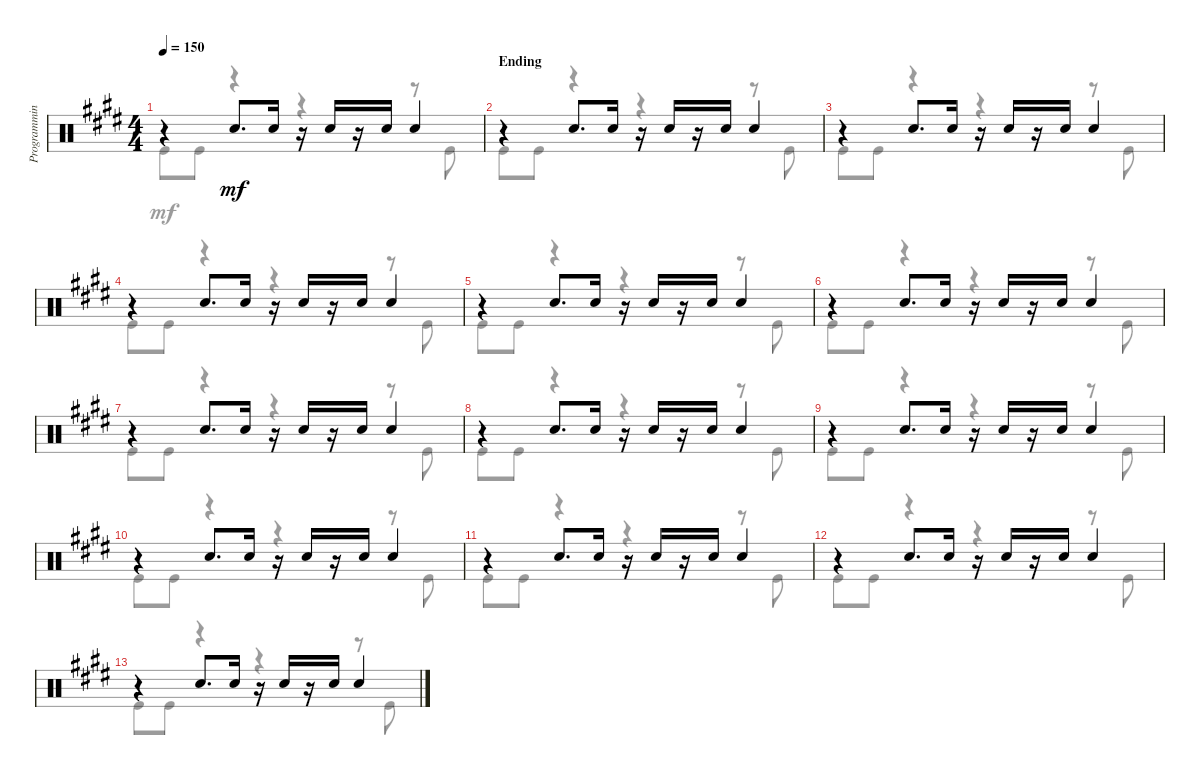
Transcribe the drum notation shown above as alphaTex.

\track ("Programming" "Programmin") {instrument percussion}
\staff {score}
\articulation defaults
\voice
\ts (4 4)
\tempo 150
\clef neutral
\ks e
r.4{dy mf} "Snare (hit) 2".8{d} "Snare (hit) 2".16 r.16 "Snare (hit) 2".16 r.16 "Snare (hit) 2".16 "Snare (hit) 2".4 |
\section ("" "Ending")
r.4 "Snare (hit) 2".8{d} "Snare (hit) 2".16 r.16 "Snare (hit) 2".16 r.16 "Snare (hit) 2".16 "Snare (hit) 2".4 |
r.4 "Snare (hit) 2".8{d} "Snare (hit) 2".16 r.16 "Snare (hit) 2".16 r.16 "Snare (hit) 2".16 "Snare (hit) 2".4 |
r.4 "Snare (hit) 2".8{d} "Snare (hit) 2".16 r.16 "Snare (hit) 2".16 r.16 "Snare (hit) 2".16 "Snare (hit) 2".4 |
r.4 "Snare (hit) 2".8{d} "Snare (hit) 2".16 r.16 "Snare (hit) 2".16 r.16 "Snare (hit) 2".16 "Snare (hit) 2".4 |
r.4 "Snare (hit) 2".8{d} "Snare (hit) 2".16 r.16 "Snare (hit) 2".16 r.16 "Snare (hit) 2".16 "Snare (hit) 2".4 |
r.4 "Snare (hit) 2".8{d} "Snare (hit) 2".16 r.16 "Snare (hit) 2".16 r.16 "Snare (hit) 2".16 "Snare (hit) 2".4 |
r.4 "Snare (hit) 2".8{d} "Snare (hit) 2".16 r.16 "Snare (hit) 2".16 r.16 "Snare (hit) 2".16 "Snare (hit) 2".4 |
r.4 "Snare (hit) 2".8{d} "Snare (hit) 2".16 r.16 "Snare (hit) 2".16 r.16 "Snare (hit) 2".16 "Snare (hit) 2".4 |
r.4 "Snare (hit) 2".8{d} "Snare (hit) 2".16 r.16 "Snare (hit) 2".16 r.16 "Snare (hit) 2".16 "Snare (hit) 2".4 |
r.4 "Snare (hit) 2".8{d} "Snare (hit) 2".16 r.16 "Snare (hit) 2".16 r.16 "Snare (hit) 2".16 "Snare (hit) 2".4 |
r.4 "Snare (hit) 2".8{d} "Snare (hit) 2".16 r.16 "Snare (hit) 2".16 r.16 "Snare (hit) 2".16 "Snare (hit) 2".4 |
r.4 "Snare (hit) 2".8{d} "Snare (hit) 2".16 r.16 "Snare (hit) 2".16 r.16 "Snare (hit) 2".16 "Snare (hit) 2".4 |
\voice
\clef neutral
\ottava regular
\simile none
\ks e "Kick (hit)".8{dy mf} "Kick (hit)".8
r.4 r.4 r.8 "Kick (hit)".8 |
"Kick (hit)".8 "Kick (hit)".8 r.4 r.4 r.8 "Kick (hit)".8 |
"Kick (hit)".8 "Kick (hit)".8 r.4 r.4 r.8 "Kick (hit)".8 |
"Kick (hit)".8 "Kick (hit)".8 r.4 r.4 r.8 "Kick (hit)".8 |
"Kick (hit)".8 "Kick (hit)".8 r.4 r.4 r.8 "Kick (hit)".8 |
"Kick (hit)".8 "Kick (hit)".8 r.4 r.4 r.8 "Kick (hit)".8 |
"Kick (hit)".8 "Kick (hit)".8 r.4 r.4 r.8 "Kick (hit)".8 |
"Kick (hit)".8 "Kick (hit)".8 r.4 r.4 r.8 "Kick (hit)".8 |
"Kick (hit)".8 "Kick (hit)".8 r.4 r.4 r.8 "Kick (hit)".8 |
"Kick (hit)".8 "Kick (hit)".8 r.4 r.4 r.8 "Kick (hit)".8 |
"Kick (hit)".8 "Kick (hit)".8 r.4 r.4 r.8 "Kick (hit)".8 |
"Kick (hit)".8 "Kick (hit)".8 r.4 r.4 r.8 "Kick (hit)".8 |
"Kick (hit)".8 "Kick (hit)".8 r.4 r.4 r.8 "Kick (hit)".8 |
